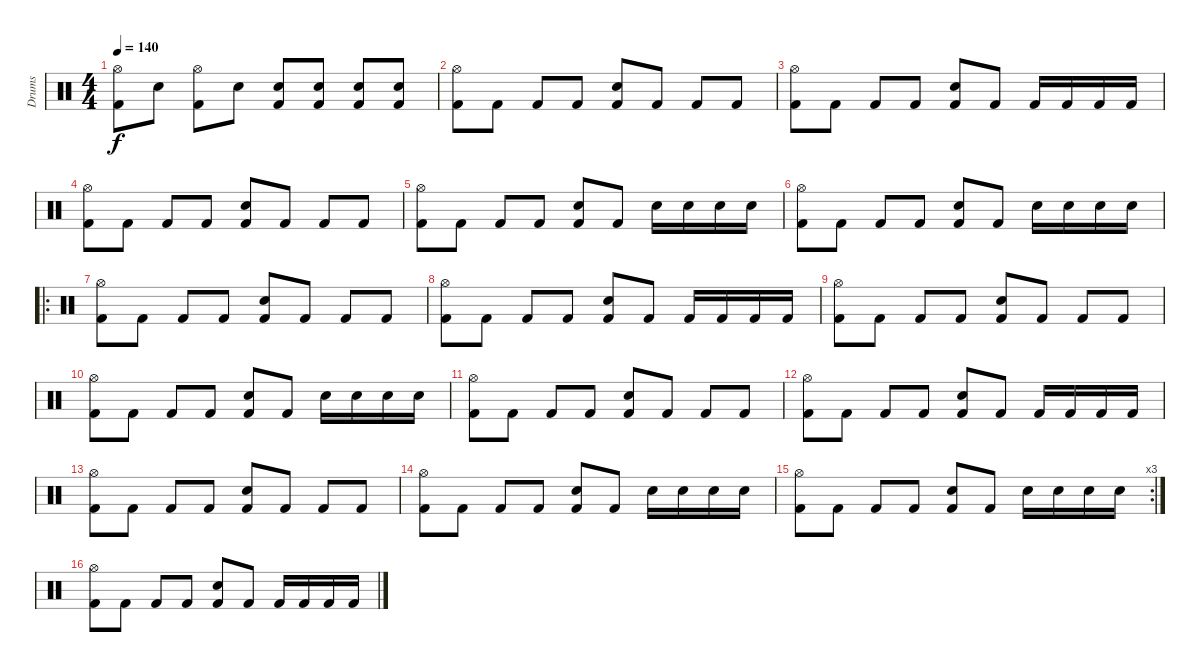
\track ("Drums" "Drums") {instrument percussion}
\staff {score}
\articulation defaults
\ts (4 4)
\tempo 140
\clef neutral
\ks c
("Hi-Hat (open)" "Kick (hit) 2").8{dy f} "Snare (hit) 2".8 ("Hi-Hat (open)" "Kick (hit) 2").8 "Snare (hit) 2".8 ("Snare (hit) 2" "Kick (hit) 2").8 ("Snare (hit) 2" "Kick (hit) 2").8 ("Snare (hit) 2" "Kick (hit) 2").8 ("Snare (hit) 2" "Kick (hit) 2").8 |
("Hi-Hat (open)" "Kick (hit) 2").8 "Kick (hit) 2".8 "Kick (hit) 2".8 "Kick (hit) 2".8 ("Snare (hit) 2" "Kick (hit) 2").8 "Kick (hit) 2".8 "Kick (hit) 2".8 "Kick (hit) 2".8 |
("Hi-Hat (open)" "Kick (hit) 2").8 "Kick (hit) 2".8 "Kick (hit) 2".8 "Kick (hit) 2".8 ("Snare (hit) 2" "Kick (hit) 2").8 "Kick (hit) 2".8 "Kick (hit) 2".16 "Kick (hit) 2".16 "Kick (hit) 2".16 "Kick (hit) 2".16 |
("Hi-Hat (open)" "Kick (hit) 2").8 "Kick (hit) 2".8 "Kick (hit) 2".8 "Kick (hit) 2".8 ("Snare (hit) 2" "Kick (hit) 2").8 "Kick (hit) 2".8 "Kick (hit) 2".8 "Kick (hit) 2".8 |
("Hi-Hat (open)" "Kick (hit) 2").8 "Kick (hit) 2".8 "Kick (hit) 2".8 "Kick (hit) 2".8 ("Snare (hit) 2" "Kick (hit) 2").8 "Kick (hit) 2".8 "Snare (hit) 2".16 "Snare (hit) 2".16 "Snare (hit) 2".16 "Snare (hit) 2".16 |
("Hi-Hat (open)" "Kick (hit) 2").8 "Kick (hit) 2".8 "Kick (hit) 2".8 "Kick (hit) 2".8 ("Snare (hit) 2" "Kick (hit) 2").8 "Kick (hit) 2".8 "Snare (hit) 2".16 "Snare (hit) 2".16 "Snare (hit) 2".16 "Snare (hit) 2".16 |
\ro
("Hi-Hat (open)" "Kick (hit) 2").8 "Kick (hit) 2".8 "Kick (hit) 2".8 "Kick (hit) 2".8 ("Snare (hit) 2" "Kick (hit) 2").8 "Kick (hit) 2".8 "Kick (hit) 2".8 "Kick (hit) 2".8 |
("Hi-Hat (open)" "Kick (hit) 2").8 "Kick (hit) 2".8 "Kick (hit) 2".8 "Kick (hit) 2".8 ("Snare (hit) 2" "Kick (hit) 2").8 "Kick (hit) 2".8 "Kick (hit) 2".16 "Kick (hit) 2".16 "Kick (hit) 2".16 "Kick (hit) 2".16 |
("Hi-Hat (open)" "Kick (hit) 2").8 "Kick (hit) 2".8 "Kick (hit) 2".8 "Kick (hit) 2".8 ("Snare (hit) 2" "Kick (hit) 2").8 "Kick (hit) 2".8 "Kick (hit) 2".8 "Kick (hit) 2".8 |
("Hi-Hat (open)" "Kick (hit) 2").8 "Kick (hit) 2".8 "Kick (hit) 2".8 "Kick (hit) 2".8 ("Snare (hit) 2" "Kick (hit) 2").8 "Kick (hit) 2".8 "Snare (hit) 2".16 "Snare (hit) 2".16 "Snare (hit) 2".16 "Snare (hit) 2".16 |
("Hi-Hat (open)" "Kick (hit) 2").8 "Kick (hit) 2".8 "Kick (hit) 2".8 "Kick (hit) 2".8 ("Snare (hit) 2" "Kick (hit) 2").8 "Kick (hit) 2".8 "Kick (hit) 2".8 "Kick (hit) 2".8 |
("Hi-Hat (open)" "Kick (hit) 2").8 "Kick (hit) 2".8 "Kick (hit) 2".8 "Kick (hit) 2".8 ("Snare (hit) 2" "Kick (hit) 2").8 "Kick (hit) 2".8 "Kick (hit) 2".16 "Kick (hit) 2".16 "Kick (hit) 2".16 "Kick (hit) 2".16 |
("Hi-Hat (open)" "Kick (hit) 2").8 "Kick (hit) 2".8 "Kick (hit) 2".8 "Kick (hit) 2".8 ("Snare (hit) 2" "Kick (hit) 2").8 "Kick (hit) 2".8 "Kick (hit) 2".8 "Kick (hit) 2".8 |
("Hi-Hat (open)" "Kick (hit) 2").8 "Kick (hit) 2".8 "Kick (hit) 2".8 "Kick (hit) 2".8 ("Snare (hit) 2" "Kick (hit) 2").8 "Kick (hit) 2".8 "Snare (hit) 2".16 "Snare (hit) 2".16 "Snare (hit) 2".16 "Snare (hit) 2".16 |
\rc 3
("Hi-Hat (open)" "Kick (hit) 2").8 "Kick (hit) 2".8 "Kick (hit) 2".8 "Kick (hit) 2".8 ("Snare (hit) 2" "Kick (hit) 2").8 "Kick (hit) 2".8 "Snare (hit) 2".16 "Snare (hit) 2".16 "Snare (hit) 2".16 "Snare (hit) 2".16 |
("Hi-Hat (open)" "Kick (hit) 2").8 "Kick (hit) 2".8 "Kick (hit) 2".8 "Kick (hit) 2".8 ("Snare (hit) 2" "Kick (hit) 2").8 "Kick (hit) 2".8 "Kick (hit) 2".16 "Kick (hit) 2".16 "Kick (hit) 2".16 "Kick (hit) 2".16
